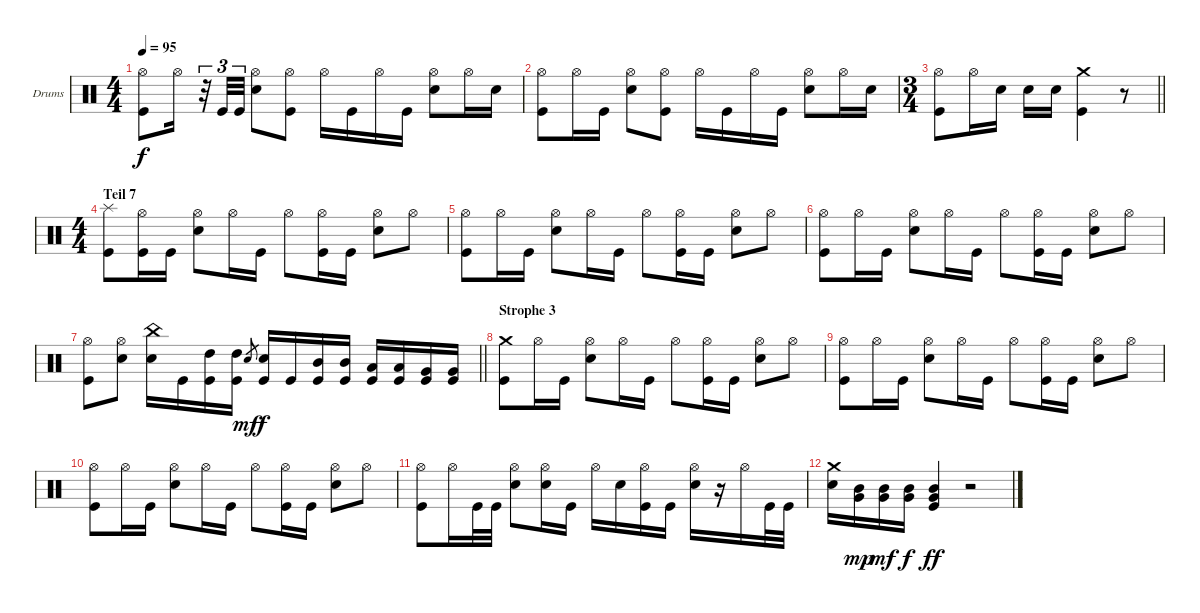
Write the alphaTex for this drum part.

\bracketExtendMode groupsimilarinstruments
\firstSystemTrackNameOrientation horizontal
\otherSystemsTrackNameOrientation horizontal
\track ("Drumkit" "Drums") {instrument percussion}
\staff {score}
\articulation defaults
\ts (4 4)
\tempo 95
\clef neutral
\ks c
("Hi-Hat (open)" "Kick (hit)").8{dy f} "Hi-Hat (open)".16 r.32{tu (3 2)} "Kick (hit)".32{tu (3 2)} "Kick (hit)".32{tu (3 2)} ("Hi-Hat (open)" "Snare (hit) 2").8 ("Hi-Hat (open)" "Kick (hit)").8 "Hi-Hat (open)".16 "Kick (hit)".16 "Hi-Hat (open)".16 "Kick (hit)".16 ("Hi-Hat (open)" "Snare (hit) 2").8 "Hi-Hat (open)".16 "Snare (hit) 2".16 |
("Hi-Hat (open)" "Kick (hit)").8 "Hi-Hat (open)".16 "Kick (hit)".16 ("Hi-Hat (open)" "Snare (hit) 2").8 ("Hi-Hat (open)" "Kick (hit)").8 "Hi-Hat (open)".16 "Kick (hit)".16 "Hi-Hat (open)".16 "Kick (hit)".16 ("Hi-Hat (open)" "Snare (hit) 2").8 "Hi-Hat (open)".16 "Snare (hit) 2".16 |
\ts (3 4)
\barLineRight lightlight
("Hi-Hat (open)" "Kick (hit)").8 "Hi-Hat (open)".16 "Snare (hit) 2".16 "Snare (hit) 2".16 "Snare (hit) 2".16 ("Crash medium (hit)" "Kick (hit)").4 r.8 |
\ts (4 4)
\section ("" "Teil 7")
("Splash (hit)" "Kick (hit)").8 ("Hi-Hat (open)" "Kick (hit)").16 "Kick (hit)".16 ("Hi-Hat (open)" "Snare (hit) 2").8 "Hi-Hat (open)".16 "Kick (hit)".16 "Hi-Hat (open)".8 ("Hi-Hat (open)" "Kick (hit)").16 "Kick (hit)".16 ("Hi-Hat (open)" "Snare (hit) 2").8 "Hi-Hat (open)".8 |
("Hi-Hat (open)" "Kick (hit)").8 "Hi-Hat (open)".16 "Kick (hit)".16 ("Hi-Hat (open)" "Snare (hit) 2").8 "Hi-Hat (open)".16 "Kick (hit)".16 "Hi-Hat (open)".8 ("Hi-Hat (open)" "Kick (hit)").16 "Kick (hit)".16 ("Hi-Hat (open)" "Snare (hit) 2").8 "Hi-Hat (open)".8 |
("Hi-Hat (open)" "Kick (hit)").8 "Hi-Hat (open)".16 "Kick (hit)".16 ("Hi-Hat (open)" "Snare (hit) 2").8 "Hi-Hat (open)".16 "Kick (hit)".16 "Hi-Hat (open)".8 ("Hi-Hat (open)" "Kick (hit)").16 "Kick (hit)".16 ("Hi-Hat (open)" "Snare (hit) 2").8 "Hi-Hat (open)".8 |
\barLineRight lightlight
("Hi-Hat (open)" "Kick (hit)").8 ("Hi-Hat (open)" "Snare (hit) 2").8 ("China (hit)" "Snare (hit) 2").16 "Kick (hit)".16 ("High Tom (hit)" "Kick (hit)").16 ("High Tom (hit)" "Kick (hit)").16 "Snare (hit) 2".8{gr dy mf} ("Snare (hit) 2" "Kick (hit)").16{dy f} "Kick (hit)".16 ("Mid Tom (hit)" "Kick (hit)").16 ("Mid Tom (hit)" "Kick (hit)").16 ("Low Tom (hit)" "Kick (hit)").16 ("Low Tom (hit)" "Kick (hit)").16 ("Very Low Tom (hit)" "Kick (hit)").16 ("Very Low Tom (hit)" "Kick (hit)").16 |
\section ("" "Strophe 3")
("Crash medium (hit)" "Kick (hit)").8 "Hi-Hat (open)".16 "Kick (hit)".16 ("Hi-Hat (open)" "Snare (hit) 2").8 "Hi-Hat (open)".16 "Kick (hit)".16 "Hi-Hat (open)".8 ("Hi-Hat (open)" "Kick (hit)").16 "Kick (hit)".16 ("Hi-Hat (open)" "Snare (hit) 2").8 "Hi-Hat (open)".8 |
("Hi-Hat (open)" "Kick (hit)").8 "Hi-Hat (open)".16 "Kick (hit)".16 ("Hi-Hat (open)" "Snare (hit) 2").8 "Hi-Hat (open)".16 "Kick (hit)".16 "Hi-Hat (open)".8 ("Hi-Hat (open)" "Kick (hit)").16 "Kick (hit)".16 ("Hi-Hat (open)" "Snare (hit) 2").8 "Hi-Hat (open)".8 |
("Hi-Hat (open)" "Kick (hit)").8 "Hi-Hat (open)".16 "Kick (hit)".16 ("Hi-Hat (open)" "Snare (hit) 2").8 "Hi-Hat (open)".16 "Kick (hit)".16 "Hi-Hat (open)".8 ("Hi-Hat (open)" "Kick (hit)").16 "Kick (hit)".16 ("Hi-Hat (open)" "Snare (hit) 2").8 "Hi-Hat (open)".8 |
("Hi-Hat (open)" "Kick (hit)").8 "Hi-Hat (open)".16 "Kick (hit)".32 "Kick (hit)".32 ("Hi-Hat (open)" "Snare (hit) 2").8 ("Hi-Hat (open)" "Snare (hit) 2").16 "Kick (hit)".16 "Hi-Hat (open)".16 "Snare (hit) 2".16 ("Hi-Hat (open)" "Kick (hit)").16 "Kick (hit)".16 ("Hi-Hat (open)" "Snare (hit) 2").16 r.16 "Hi-Hat (open)".16 "Kick (hit)".32 "Kick (hit)".32 |
("Crash medium (hit)" "Snare (hit) 2").16 ("Mid Tom (hit)" "Very Low Tom (hit)").16{dy mp} ("Mid Tom (hit)" "Very Low Tom (hit)").16{dy mf} ("Mid Tom (hit)" "Very Low Tom (hit)").16{dy f} ("Mid Tom (hit)" "Very Low Tom (hit)" "Kick (hit)").4{dy ff} r.2
